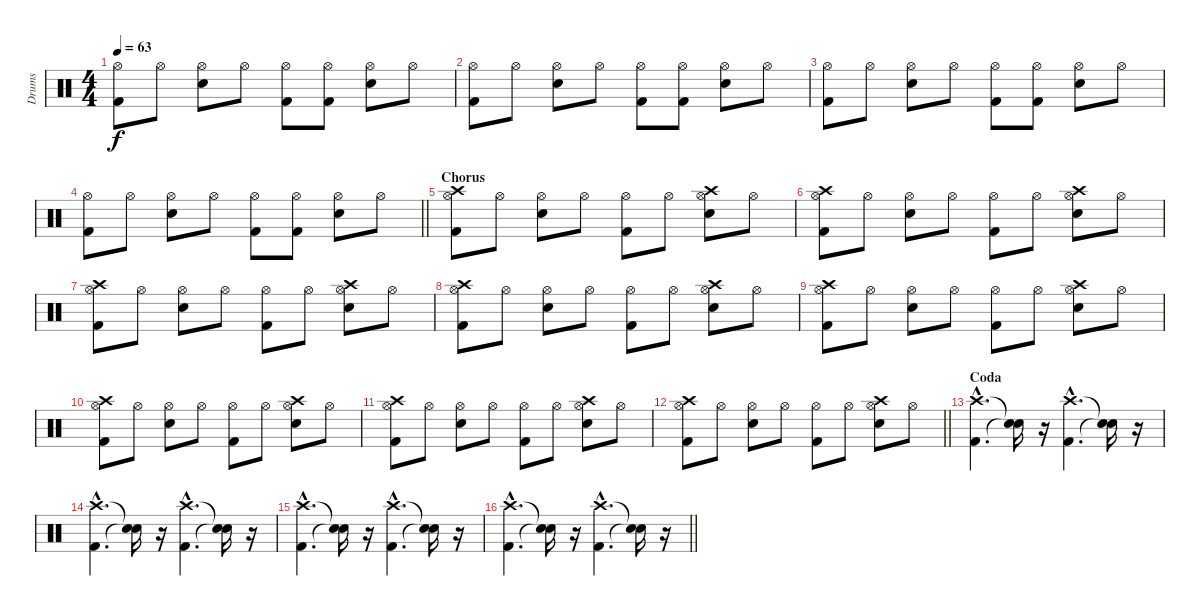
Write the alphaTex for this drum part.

\track ("Drums" "Drums") {instrument percussion}
\staff {score}
\articulation defaults
\ts (4 4)
\tempo 63
\clef neutral
\ks c
("Kick (hit) 2" "Hi-Hat (open)").8{dy f} "Hi-Hat (open)".8 ("Electric Snare (hit)" "Hi-Hat (open)").8 "Hi-Hat (open)".8 ("Kick (hit) 2" "Hi-Hat (open)").8 ("Kick (hit) 2" "Hi-Hat (open)").8 ("Electric Snare (hit)" "Hi-Hat (open)").8 "Hi-Hat (open)".8 |
("Kick (hit) 2" "Hi-Hat (open)").8 "Hi-Hat (open)".8 ("Electric Snare (hit)" "Hi-Hat (open)").8 "Hi-Hat (open)".8 ("Kick (hit) 2" "Hi-Hat (open)").8 ("Kick (hit) 2" "Hi-Hat (open)").8 ("Electric Snare (hit)" "Hi-Hat (open)").8 "Hi-Hat (open)".8 |
("Kick (hit) 2" "Hi-Hat (open)").8 "Hi-Hat (open)".8 ("Electric Snare (hit)" "Hi-Hat (open)").8 "Hi-Hat (open)".8 ("Kick (hit) 2" "Hi-Hat (open)").8 ("Kick (hit) 2" "Hi-Hat (open)").8 ("Electric Snare (hit)" "Hi-Hat (open)").8 "Hi-Hat (open)".8 |
\barLineRight lightlight
("Kick (hit) 2" "Hi-Hat (open)").8 "Hi-Hat (open)".8 ("Electric Snare (hit)" "Hi-Hat (open)").8 "Hi-Hat (open)".8 ("Kick (hit) 2" "Hi-Hat (open)").8 ("Kick (hit) 2" "Hi-Hat (open)").8 ("Electric Snare (hit)" "Hi-Hat (open)").8 "Hi-Hat (open)".8 |
\section ("" "Chorus")
("Kick (hit) 2" "Crash high (hit)" "Hi-Hat (open)").8 "Hi-Hat (open)".8 ("Electric Snare (hit)" "Hi-Hat (open)").8 "Hi-Hat (open)".8 ("Kick (hit) 2" "Hi-Hat (open)").8 "Hi-Hat (open)".8 ("Electric Snare (hit)" "Crash high (hit)" "Hi-Hat (open)").8 "Hi-Hat (open)".8 |
("Kick (hit) 2" "Crash high (hit)" "Hi-Hat (open)").8 "Hi-Hat (open)".8 ("Electric Snare (hit)" "Hi-Hat (open)").8 "Hi-Hat (open)".8 ("Kick (hit) 2" "Hi-Hat (open)").8 "Hi-Hat (open)".8 ("Electric Snare (hit)" "Crash high (hit)" "Hi-Hat (open)").8 "Hi-Hat (open)".8 |
("Kick (hit) 2" "Crash high (hit)" "Hi-Hat (open)").8 "Hi-Hat (open)".8 ("Electric Snare (hit)" "Hi-Hat (open)").8 "Hi-Hat (open)".8 ("Kick (hit) 2" "Hi-Hat (open)").8 "Hi-Hat (open)".8 ("Electric Snare (hit)" "Crash high (hit)" "Hi-Hat (open)").8 "Hi-Hat (open)".8 |
("Kick (hit) 2" "Crash high (hit)" "Hi-Hat (open)").8 "Hi-Hat (open)".8 ("Electric Snare (hit)" "Hi-Hat (open)").8 "Hi-Hat (open)".8 ("Kick (hit) 2" "Hi-Hat (open)").8 "Hi-Hat (open)".8 ("Electric Snare (hit)" "Crash high (hit)" "Hi-Hat (open)").8 "Hi-Hat (open)".8 |
("Kick (hit) 2" "Crash high (hit)" "Hi-Hat (open)").8 "Hi-Hat (open)".8 ("Electric Snare (hit)" "Hi-Hat (open)").8 "Hi-Hat (open)".8 ("Kick (hit) 2" "Hi-Hat (open)").8 "Hi-Hat (open)".8 ("Electric Snare (hit)" "Crash high (hit)" "Hi-Hat (open)").8 "Hi-Hat (open)".8 |
("Kick (hit) 2" "Crash high (hit)" "Hi-Hat (open)").8 "Hi-Hat (open)".8 ("Electric Snare (hit)" "Hi-Hat (open)").8 "Hi-Hat (open)".8 ("Kick (hit) 2" "Hi-Hat (open)").8 "Hi-Hat (open)".8 ("Electric Snare (hit)" "Crash high (hit)" "Hi-Hat (open)").8 "Hi-Hat (open)".8 |
("Kick (hit) 2" "Crash high (hit)" "Hi-Hat (open)").8 "Hi-Hat (open)".8 ("Electric Snare (hit)" "Hi-Hat (open)").8 "Hi-Hat (open)".8 ("Kick (hit) 2" "Hi-Hat (open)").8 "Hi-Hat (open)".8 ("Electric Snare (hit)" "Crash high (hit)" "Hi-Hat (open)").8 "Hi-Hat (open)".8 |
\barLineRight lightlight
("Kick (hit) 2" "Crash high (hit)" "Hi-Hat (open)").8 "Hi-Hat (open)".8 ("Electric Snare (hit)" "Hi-Hat (open)").8 "Hi-Hat (open)".8 ("Kick (hit) 2" "Hi-Hat (open)").8 "Hi-Hat (open)".8 ("Electric Snare (hit)" "Crash high (hit)" "Hi-Hat (open)").8 "Hi-Hat (open)".8 |
\section ("" "Coda")
("Kick (hit) 2"{hac} "Crash high (hit)"{hac}).4{d} ("Snare (hit)"{t} "Snare (hit)"{t}).16 r.16 ("Kick (hit) 2"{hac} "Crash high (hit)"{hac}).4{d} ("Snare (hit)"{t} "Snare (hit)"{t}).16 r.16 |
("Kick (hit) 2"{hac} "Crash high (hit)"{hac}).4{d} ("Snare (hit)"{t} "Snare (hit)"{t}).16 r.16 ("Kick (hit) 2"{hac} "Crash high (hit)"{hac}).4{d} ("Snare (hit)"{t} "Snare (hit)"{t}).16 r.16 |
("Kick (hit) 2"{hac} "Crash high (hit)"{hac}).4{d} ("Snare (hit)"{t} "Snare (hit)"{t}).16 r.16 ("Kick (hit) 2"{hac} "Crash high (hit)"{hac}).4{d} ("Snare (hit)"{t} "Snare (hit)"{t}).16 r.16 |
\barLineRight lightlight
("Kick (hit) 2"{hac} "Crash high (hit)"{hac}).4{d} ("Snare (hit)"{t} "Snare (hit)"{t}).16 r.16 ("Kick (hit) 2"{hac} "Crash high (hit)"{hac}).4{d} ("Snare (hit)"{t} "Snare (hit)"{t}).16 r.16
